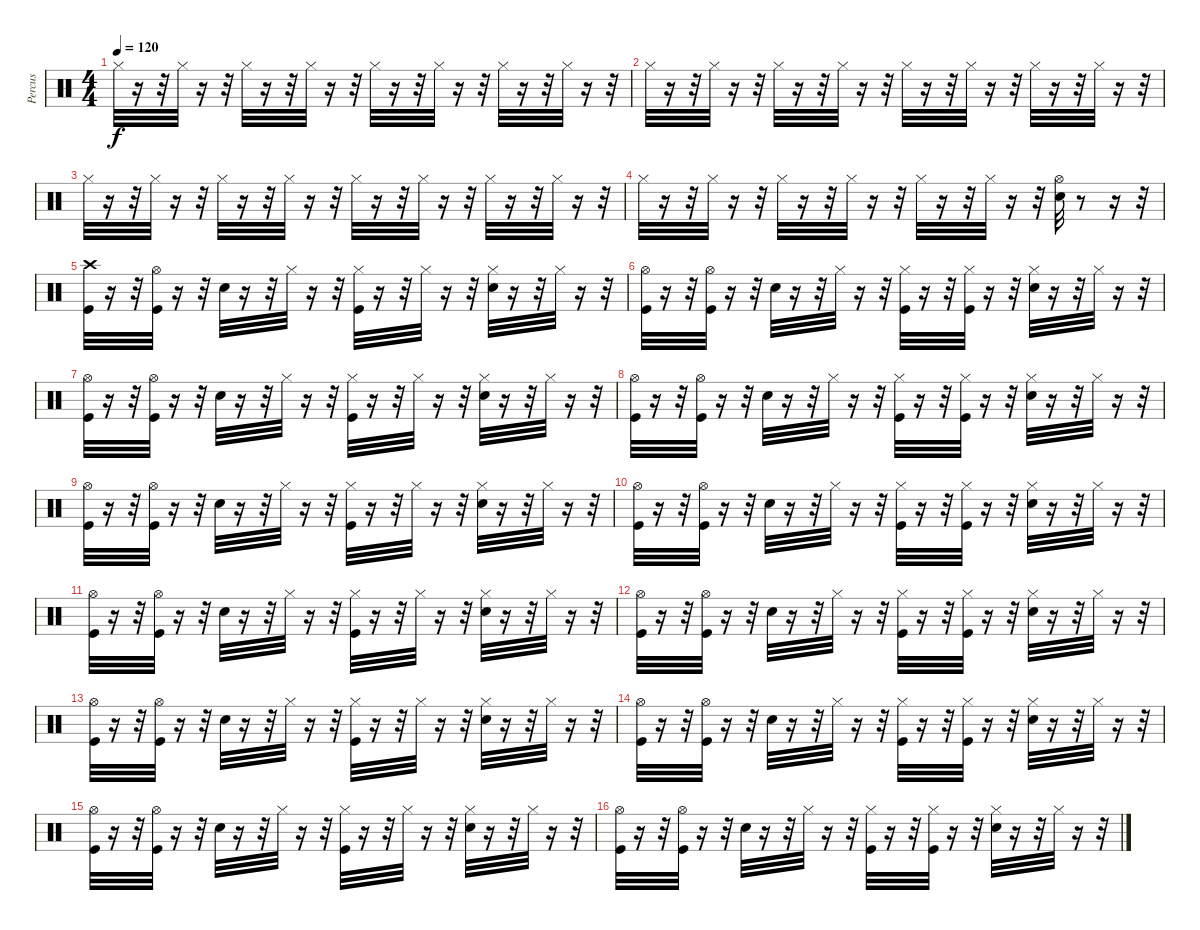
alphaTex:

\track ("Percus" "Percus") {instrument percussion}
\staff {score}
\articulation defaults
\ts (4 4)
\tempo 120
\clef neutral
\ks c "Hi-Hat (closed)".32{dy f}
r.16 r.32 "Hi-Hat (closed)".32 r.16 r.32 "Hi-Hat (closed)".32 r.16 r.32 "Hi-Hat (closed)".32 r.16 r.32 "Hi-Hat (closed)".32 r.16 r.32 "Hi-Hat (closed)".32 r.16 r.32 "Hi-Hat (closed)".32 r.16 r.32 "Hi-Hat (closed)".32 r.16 r.32 |
"Hi-Hat (closed)".32 r.16 r.32 "Hi-Hat (closed)".32 r.16 r.32 "Hi-Hat (closed)".32 r.16 r.32 "Hi-Hat (closed)".32 r.16 r.32 "Hi-Hat (closed)".32 r.16 r.32 "Hi-Hat (closed)".32 r.16 r.32 "Hi-Hat (closed)".32 r.16 r.32 "Hi-Hat (closed)".32 r.16 r.32 |
"Hi-Hat (closed)".32 r.16 r.32 "Hi-Hat (closed)".32 r.16 r.32 "Hi-Hat (closed)".32 r.16 r.32 "Hi-Hat (closed)".32 r.16 r.32 "Hi-Hat (closed)".32 r.16 r.32 "Hi-Hat (closed)".32 r.16 r.32 "Hi-Hat (closed)".32 r.16 r.32 "Hi-Hat (closed)".32 r.16 r.32 |
"Hi-Hat (closed)".32 r.16 r.32 "Hi-Hat (closed)".32 r.16 r.32 "Hi-Hat (closed)".32 r.16 r.32 "Hi-Hat (closed)".32 r.16 r.32 "Hi-Hat (closed)".32 r.16 r.32 "Hi-Hat (closed)".32 r.16 r.32 ("Electric Snare (hit)" "Hi-Hat (open)").32 r.8 r.16 r.32 |
("Kick (hit)" "Crash high (hit)").32 r.16 r.32 ("Kick (hit)" "Hi-Hat (open)").32 r.16 r.32 "Electric Snare (hit)".32 r.16 r.32 "Hi-Hat (closed)".32 r.16 r.32 ("Kick (hit)" "Hi-Hat (closed)").32 r.16 r.32 "Hi-Hat (closed)".32 r.16 r.32 ("Electric Snare (hit)" "Hi-Hat (closed)").32 r.16 r.32 "Hi-Hat (closed)".32 r.16 r.32 |
("Kick (hit)" "Hi-Hat (open)").32 r.16 r.32 ("Kick (hit)" "Hi-Hat (open)").32 r.16 r.32 "Electric Snare (hit)".32 r.16 r.32 "Hi-Hat (closed)".32 r.16 r.32 ("Kick (hit)" "Hi-Hat (closed)").32 r.16 r.32 ("Kick (hit)" "Hi-Hat (closed)").32 r.16 r.32 ("Electric Snare (hit)" "Hi-Hat (closed)").32 r.16 r.32 "Hi-Hat (closed)".32 r.16 r.32 |
("Kick (hit)" "Hi-Hat (open)").32 r.16 r.32 ("Kick (hit)" "Hi-Hat (open)").32 r.16 r.32 "Electric Snare (hit)".32 r.16 r.32 "Hi-Hat (closed)".32 r.16 r.32 ("Kick (hit)" "Hi-Hat (closed)").32 r.16 r.32 "Hi-Hat (closed)".32 r.16 r.32 ("Electric Snare (hit)" "Hi-Hat (closed)").32 r.16 r.32 "Hi-Hat (closed)".32 r.16 r.32 |
("Kick (hit)" "Hi-Hat (open)").32 r.16 r.32 ("Kick (hit)" "Hi-Hat (open)").32 r.16 r.32 "Electric Snare (hit)".32 r.16 r.32 "Hi-Hat (closed)".32 r.16 r.32 ("Kick (hit)" "Hi-Hat (closed)").32 r.16 r.32 ("Kick (hit)" "Hi-Hat (closed)").32 r.16 r.32 ("Electric Snare (hit)" "Hi-Hat (closed)").32 r.16 r.32 "Hi-Hat (closed)".32 r.16 r.32 |
("Kick (hit)" "Hi-Hat (open)").32 r.16 r.32 ("Kick (hit)" "Hi-Hat (open)").32 r.16 r.32 "Electric Snare (hit)".32 r.16 r.32 "Hi-Hat (closed)".32 r.16 r.32 ("Kick (hit)" "Hi-Hat (closed)").32 r.16 r.32 "Hi-Hat (closed)".32 r.16 r.32 ("Electric Snare (hit)" "Hi-Hat (closed)").32 r.16 r.32 "Hi-Hat (closed)".32 r.16 r.32 |
("Kick (hit)" "Hi-Hat (open)").32 r.16 r.32 ("Kick (hit)" "Hi-Hat (open)").32 r.16 r.32 "Electric Snare (hit)".32 r.16 r.32 "Hi-Hat (closed)".32 r.16 r.32 ("Kick (hit)" "Hi-Hat (closed)").32 r.16 r.32 ("Kick (hit)" "Hi-Hat (closed)").32 r.16 r.32 ("Electric Snare (hit)" "Hi-Hat (closed)").32 r.16 r.32 "Hi-Hat (closed)".32 r.16 r.32 |
("Kick (hit)" "Hi-Hat (open)").32 r.16 r.32 ("Kick (hit)" "Hi-Hat (open)").32 r.16 r.32 "Electric Snare (hit)".32 r.16 r.32 "Hi-Hat (closed)".32 r.16 r.32 ("Kick (hit)" "Hi-Hat (closed)").32 r.16 r.32 "Hi-Hat (closed)".32 r.16 r.32 ("Electric Snare (hit)" "Hi-Hat (closed)").32 r.16 r.32 "Hi-Hat (closed)".32 r.16 r.32 |
("Kick (hit)" "Hi-Hat (open)").32 r.16 r.32 ("Kick (hit)" "Hi-Hat (open)").32 r.16 r.32 "Electric Snare (hit)".32 r.16 r.32 "Hi-Hat (closed)".32 r.16 r.32 ("Kick (hit)" "Hi-Hat (closed)").32 r.16 r.32 ("Kick (hit)" "Hi-Hat (closed)").32 r.16 r.32 ("Electric Snare (hit)" "Hi-Hat (closed)").32 r.16 r.32 "Hi-Hat (closed)".32 r.16 r.32 |
("Kick (hit)" "Hi-Hat (open)").32 r.16 r.32 ("Kick (hit)" "Hi-Hat (open)").32 r.16 r.32 "Electric Snare (hit)".32 r.16 r.32 "Hi-Hat (closed)".32 r.16 r.32 ("Kick (hit)" "Hi-Hat (closed)").32 r.16 r.32 "Hi-Hat (closed)".32 r.16 r.32 ("Electric Snare (hit)" "Hi-Hat (closed)").32 r.16 r.32 "Hi-Hat (closed)".32 r.16 r.32 |
("Kick (hit)" "Hi-Hat (open)").32 r.16 r.32 ("Kick (hit)" "Hi-Hat (open)").32 r.16 r.32 "Electric Snare (hit)".32 r.16 r.32 "Hi-Hat (closed)".32 r.16 r.32 ("Kick (hit)" "Hi-Hat (closed)").32 r.16 r.32 ("Kick (hit)" "Hi-Hat (closed)").32 r.16 r.32 ("Electric Snare (hit)" "Hi-Hat (closed)").32 r.16 r.32 "Hi-Hat (closed)".32 r.16 r.32 |
("Kick (hit)" "Hi-Hat (open)").32 r.16 r.32 ("Kick (hit)" "Hi-Hat (open)").32 r.16 r.32 "Electric Snare (hit)".32 r.16 r.32 "Hi-Hat (closed)".32 r.16 r.32 ("Kick (hit)" "Hi-Hat (closed)").32 r.16 r.32 "Hi-Hat (closed)".32 r.16 r.32 ("Electric Snare (hit)" "Hi-Hat (closed)").32 r.16 r.32 "Hi-Hat (closed)".32 r.16 r.32 |
("Kick (hit)" "Hi-Hat (open)").32 r.16 r.32 ("Kick (hit)" "Hi-Hat (open)").32 r.16 r.32 "Electric Snare (hit)".32 r.16 r.32 "Hi-Hat (closed)".32 r.16 r.32 ("Kick (hit)" "Hi-Hat (closed)").32 r.16 r.32 ("Kick (hit)" "Hi-Hat (closed)").32 r.16 r.32 ("Electric Snare (hit)" "Hi-Hat (closed)").32 r.16 r.32 "Hi-Hat (closed)".32 r.16 r.32
